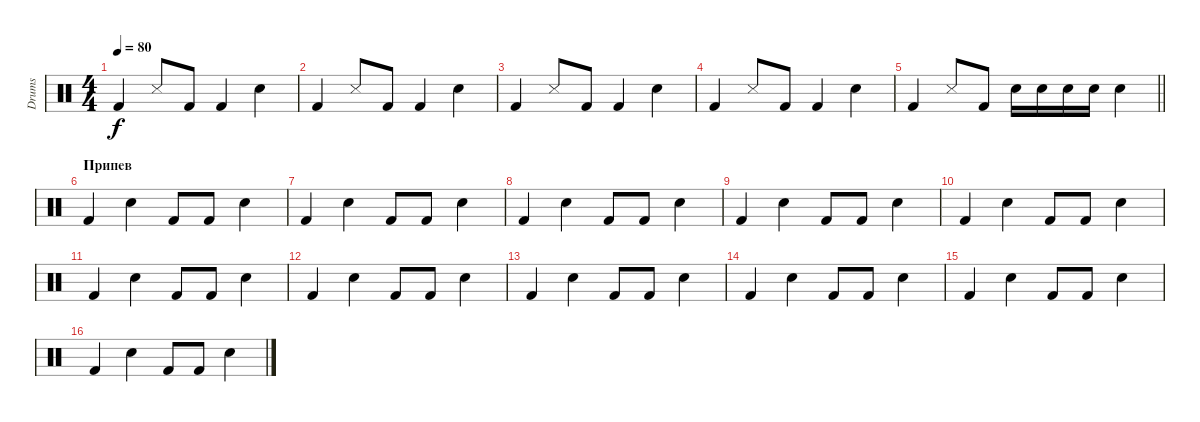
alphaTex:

\track ("Drums" "Drums") {instrument percussion}
\staff
\articulation defaults
\ts (4 4)
\tempo 80
\clef neutral
\ks c "Kick (hit) 2".4{dy f} "Snare (side stick) 3".8 "Kick (hit) 2".8 "Kick (hit) 2".4 "Snare (hit) 2".4
|
"Kick (hit) 2".4 "Snare (side stick) 3".8 "Kick (hit) 2".8 "Kick (hit) 2".4 "Snare (hit) 2".4 |
"Kick (hit) 2".4 "Snare (side stick) 3".8 "Kick (hit) 2".8 "Kick (hit) 2".4 "Snare (hit) 2".4 |
"Kick (hit) 2".4 "Snare (side stick) 3".8 "Kick (hit) 2".8 "Kick (hit) 2".4 "Snare (hit) 2".4 |
\barLineRight lightlight "Kick (hit) 2".4 "Snare (side stick) 3".8 "Kick (hit) 2".8 "Snare (hit) 2".16 "Snare (hit) 2".16 "Snare (hit) 2".16 "Snare (hit) 2".16 "Snare (hit) 2".4
|
\section ("" "Припев")
"Kick (hit) 2".4 "Snare (hit) 2".4 "Kick (hit) 2".8 "Kick (hit) 2".8 "Snare (hit) 2".4 |
"Kick (hit) 2".4 "Snare (hit) 2".4 "Kick (hit) 2".8 "Kick (hit) 2".8 "Snare (hit) 2".4 |
"Kick (hit) 2".4 "Snare (hit) 2".4 "Kick (hit) 2".8 "Kick (hit) 2".8 "Snare (hit) 2".4 |
"Kick (hit) 2".4 "Snare (hit) 2".4 "Kick (hit) 2".8 "Kick (hit) 2".8 "Snare (hit) 2".4 |
"Kick (hit) 2".4 "Snare (hit) 2".4 "Kick (hit) 2".8 "Kick (hit) 2".8 "Snare (hit) 2".4 |
"Kick (hit) 2".4 "Snare (hit) 2".4 "Kick (hit) 2".8 "Kick (hit) 2".8 "Snare (hit) 2".4 |
"Kick (hit) 2".4 "Snare (hit) 2".4 "Kick (hit) 2".8 "Kick (hit) 2".8 "Snare (hit) 2".4 |
"Kick (hit) 2".4 "Snare (hit) 2".4 "Kick (hit) 2".8 "Kick (hit) 2".8 "Snare (hit) 2".4 |
"Kick (hit) 2".4 "Snare (hit) 2".4 "Kick (hit) 2".8 "Kick (hit) 2".8 "Snare (hit) 2".4 |
"Kick (hit) 2".4 "Snare (hit) 2".4 "Kick (hit) 2".8 "Kick (hit) 2".8 "Snare (hit) 2".4 |
"Kick (hit) 2".4 "Snare (hit) 2".4 "Kick (hit) 2".8 "Kick (hit) 2".8 "Snare (hit) 2".4
